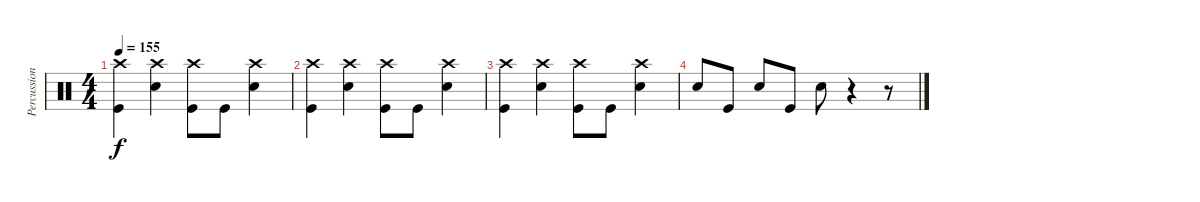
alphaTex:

\track ("Percussion" "Percussion") {instrument percussion}
\staff {score}
\articulation defaults
\ts (4 4)
\tempo 155
\clef neutral
\ks c
("Crash high (hit)" "Kick (hit)").4{dy f} ("Crash high (hit)" "Electric Snare (hit)").4 ("Crash high (hit)" "Kick (hit)").8 "Kick (hit)".8 ("Crash high (hit)" "Electric Snare (hit)").4 |
("Crash high (hit)" "Kick (hit)").4 ("Crash high (hit)" "Electric Snare (hit)").4 ("Crash high (hit)" "Kick (hit)").8 "Kick (hit)".8 ("Crash high (hit)" "Electric Snare (hit)").4 |
("Crash high (hit)" "Kick (hit)").4 ("Crash high (hit)" "Electric Snare (hit)").4 ("Crash high (hit)" "Kick (hit)").8 "Kick (hit)".8 ("Crash high (hit)" "Electric Snare (hit)").4 |
"Electric Snare (hit)".8 "Kick (hit)".8 "Electric Snare (hit)".8 "Kick (hit)".8 "Electric Snare (hit)".8 r.4 r.8
